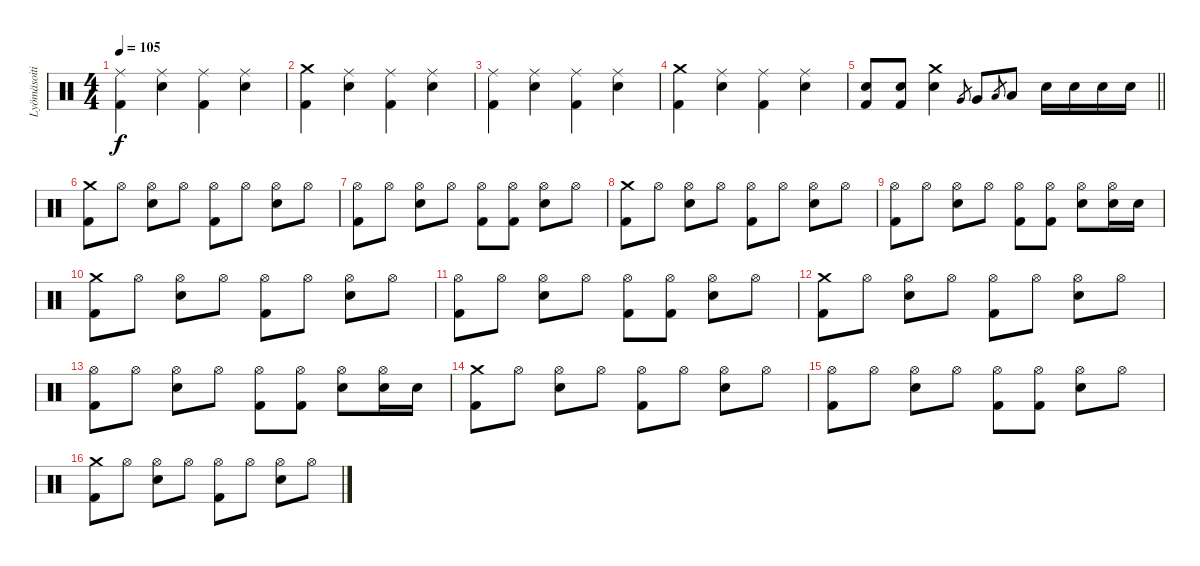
\track ("Lyömäsoitin" "Lyömäsoiti") {instrument percussion}
\staff {score}
\articulation defaults
\ts (4 4)
\tempo 105
\clef neutral
\ks c
("Ride (middle)" "Kick (hit) 2").4{dy f} ("Ride (middle)" "Snare (hit) 2").4 ("Ride (middle)" "Kick (hit) 2").4 ("Ride (middle)" "Snare (hit) 2").4 |
("Crash medium (hit)" "Kick (hit) 2").4 ("Ride (middle)" "Snare (hit) 2").4 ("Ride (middle)" "Kick (hit) 2").4 ("Ride (middle)" "Snare (hit) 2").4 |
("Ride (middle)" "Kick (hit) 2").4 ("Ride (middle)" "Snare (hit) 2").4 ("Ride (middle)" "Kick (hit) 2").4 ("Ride (middle)" "Snare (hit) 2").4 |
("Crash medium (hit)" "Kick (hit) 2").4 ("Ride (middle)" "Snare (hit) 2").4 ("Ride (middle)" "Kick (hit) 2").4 ("Ride (middle)" "Snare (hit) 2").4 |
\barLineRight lightlight
("Snare (hit) 2" "Kick (hit) 2").8 ("Snare (hit) 2" "Kick (hit) 2").8 ("Crash medium (hit)" "Snare (hit) 2").4 "Very Low Tom (hit)".8{gr} "Very Low Tom (hit)".8 "Low Floor Tom (hit)".8{gr} "Low Floor Tom (hit)".8 "Snare (hit) 2".16 "Snare (hit) 2".16 "Snare (hit) 2".16 "Snare (hit) 2".16 |
("Crash medium (hit)" "Kick (hit) 2").8 "Hi-Hat (open)".8 ("Hi-Hat (open)" "Snare (hit) 2").8 "Hi-Hat (open)".8 ("Hi-Hat (open)" "Kick (hit) 2").8 "Hi-Hat (open)".8 ("Hi-Hat (open)" "Snare (hit) 2").8 "Hi-Hat (open)".8 |
("Hi-Hat (open)" "Kick (hit) 2").8 "Hi-Hat (open)".8 ("Hi-Hat (open)" "Snare (hit) 2").8 "Hi-Hat (open)".8 ("Hi-Hat (open)" "Kick (hit) 2").8 ("Hi-Hat (open)" "Kick (hit) 2").8 ("Hi-Hat (open)" "Snare (hit) 2").8 "Hi-Hat (open)".8 |
("Crash medium (hit)" "Kick (hit) 2").8 "Hi-Hat (open)".8 ("Hi-Hat (open)" "Snare (hit) 2").8 "Hi-Hat (open)".8 ("Hi-Hat (open)" "Kick (hit) 2").8 "Hi-Hat (open)".8 ("Hi-Hat (open)" "Snare (hit) 2").8 "Hi-Hat (open)".8 |
("Hi-Hat (open)" "Kick (hit) 2").8 "Hi-Hat (open)".8 ("Hi-Hat (open)" "Snare (hit) 2").8 "Hi-Hat (open)".8 ("Hi-Hat (open)" "Kick (hit) 2").8 ("Hi-Hat (open)" "Kick (hit) 2").8 ("Hi-Hat (open)" "Snare (hit) 2").8 ("Hi-Hat (open)" "Snare (hit) 2").16 "Snare (hit) 2".16 |
("Crash medium (hit)" "Kick (hit) 2").8 "Hi-Hat (open)".8 ("Hi-Hat (open)" "Snare (hit) 2").8 "Hi-Hat (open)".8 ("Hi-Hat (open)" "Kick (hit) 2").8 "Hi-Hat (open)".8 ("Hi-Hat (open)" "Snare (hit) 2").8 "Hi-Hat (open)".8 |
("Hi-Hat (open)" "Kick (hit) 2").8 "Hi-Hat (open)".8 ("Hi-Hat (open)" "Snare (hit) 2").8 "Hi-Hat (open)".8 ("Hi-Hat (open)" "Kick (hit) 2").8 ("Hi-Hat (open)" "Kick (hit) 2").8 ("Hi-Hat (open)" "Snare (hit) 2").8 "Hi-Hat (open)".8 |
("Crash medium (hit)" "Kick (hit) 2").8 "Hi-Hat (open)".8 ("Hi-Hat (open)" "Snare (hit) 2").8 "Hi-Hat (open)".8 ("Hi-Hat (open)" "Kick (hit) 2").8 "Hi-Hat (open)".8 ("Hi-Hat (open)" "Snare (hit) 2").8 "Hi-Hat (open)".8 |
("Hi-Hat (open)" "Kick (hit) 2").8 "Hi-Hat (open)".8 ("Hi-Hat (open)" "Snare (hit) 2").8 "Hi-Hat (open)".8 ("Hi-Hat (open)" "Kick (hit) 2").8 ("Hi-Hat (open)" "Kick (hit) 2").8 ("Hi-Hat (open)" "Snare (hit) 2").8 ("Hi-Hat (open)" "Snare (hit) 2").16 "Snare (hit) 2".16 |
("Crash medium (hit)" "Kick (hit) 2").8 "Hi-Hat (open)".8 ("Hi-Hat (open)" "Snare (hit) 2").8 "Hi-Hat (open)".8 ("Hi-Hat (open)" "Kick (hit) 2").8 "Hi-Hat (open)".8 ("Hi-Hat (open)" "Snare (hit) 2").8 "Hi-Hat (open)".8 |
("Hi-Hat (open)" "Kick (hit) 2").8 "Hi-Hat (open)".8 ("Hi-Hat (open)" "Snare (hit) 2").8 "Hi-Hat (open)".8 ("Hi-Hat (open)" "Kick (hit) 2").8 ("Hi-Hat (open)" "Kick (hit) 2").8 ("Hi-Hat (open)" "Snare (hit) 2").8 "Hi-Hat (open)".8 |
("Crash medium (hit)" "Kick (hit) 2").8 "Hi-Hat (open)".8 ("Hi-Hat (open)" "Snare (hit) 2").8 "Hi-Hat (open)".8 ("Hi-Hat (open)" "Kick (hit) 2").8 "Hi-Hat (open)".8 ("Hi-Hat (open)" "Snare (hit) 2").8 "Hi-Hat (open)".8
